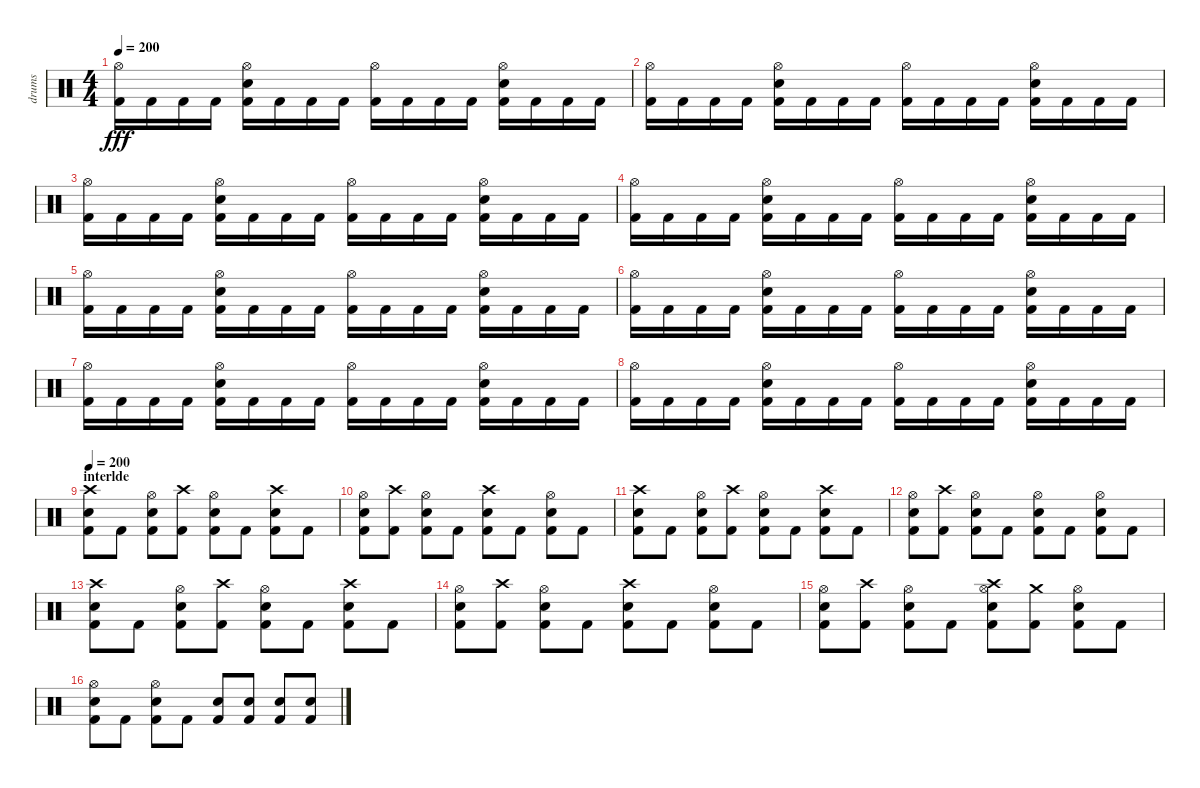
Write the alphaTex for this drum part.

\track ("drums" "drums") {instrument percussion}
\staff {score}
\articulation defaults
\ts (4 4)
\tempo 200
\clef neutral
\ks c
("Hi-Hat (open)" "Kick (hit) 2").16{dy fff} "Kick (hit) 2".16 "Kick (hit) 2".16 "Kick (hit) 2".16 ("Hi-Hat (open)" "Snare (hit) 2" "Kick (hit) 2").16 "Kick (hit) 2".16 "Kick (hit) 2".16 "Kick (hit) 2".16 ("Hi-Hat (open)" "Kick (hit) 2").16 "Kick (hit) 2".16 "Kick (hit) 2".16 "Kick (hit) 2".16 ("Hi-Hat (open)" "Snare (hit) 2" "Kick (hit) 2").16 "Kick (hit) 2".16 "Kick (hit) 2".16 "Kick (hit) 2".16 |
("Hi-Hat (open)" "Kick (hit) 2").16 "Kick (hit) 2".16 "Kick (hit) 2".16 "Kick (hit) 2".16 ("Hi-Hat (open)" "Snare (hit) 2" "Kick (hit) 2").16 "Kick (hit) 2".16 "Kick (hit) 2".16 "Kick (hit) 2".16 ("Hi-Hat (open)" "Kick (hit) 2").16 "Kick (hit) 2".16 "Kick (hit) 2".16 "Kick (hit) 2".16 ("Hi-Hat (open)" "Snare (hit) 2" "Kick (hit) 2").16 "Kick (hit) 2".16 "Kick (hit) 2".16 "Kick (hit) 2".16 |
("Hi-Hat (open)" "Kick (hit) 2").16 "Kick (hit) 2".16 "Kick (hit) 2".16 "Kick (hit) 2".16 ("Hi-Hat (open)" "Snare (hit) 2" "Kick (hit) 2").16 "Kick (hit) 2".16 "Kick (hit) 2".16 "Kick (hit) 2".16 ("Hi-Hat (open)" "Kick (hit) 2").16 "Kick (hit) 2".16 "Kick (hit) 2".16 "Kick (hit) 2".16 ("Hi-Hat (open)" "Snare (hit) 2" "Kick (hit) 2").16 "Kick (hit) 2".16 "Kick (hit) 2".16 "Kick (hit) 2".16 |
("Hi-Hat (open)" "Kick (hit) 2").16 "Kick (hit) 2".16 "Kick (hit) 2".16 "Kick (hit) 2".16 ("Hi-Hat (open)" "Snare (hit) 2" "Kick (hit) 2").16 "Kick (hit) 2".16 "Kick (hit) 2".16 "Kick (hit) 2".16 ("Hi-Hat (open)" "Kick (hit) 2").16 "Kick (hit) 2".16 "Kick (hit) 2".16 "Kick (hit) 2".16 ("Hi-Hat (open)" "Snare (hit) 2" "Kick (hit) 2").16 "Kick (hit) 2".16 "Kick (hit) 2".16 "Kick (hit) 2".16 |
("Hi-Hat (open)" "Kick (hit) 2").16 "Kick (hit) 2".16 "Kick (hit) 2".16 "Kick (hit) 2".16 ("Hi-Hat (open)" "Snare (hit) 2" "Kick (hit) 2").16 "Kick (hit) 2".16 "Kick (hit) 2".16 "Kick (hit) 2".16 ("Hi-Hat (open)" "Kick (hit) 2").16 "Kick (hit) 2".16 "Kick (hit) 2".16 "Kick (hit) 2".16 ("Hi-Hat (open)" "Snare (hit) 2" "Kick (hit) 2").16 "Kick (hit) 2".16 "Kick (hit) 2".16 "Kick (hit) 2".16 |
("Hi-Hat (open)" "Kick (hit) 2").16 "Kick (hit) 2".16 "Kick (hit) 2".16 "Kick (hit) 2".16 ("Hi-Hat (open)" "Snare (hit) 2" "Kick (hit) 2").16 "Kick (hit) 2".16 "Kick (hit) 2".16 "Kick (hit) 2".16 ("Hi-Hat (open)" "Kick (hit) 2").16 "Kick (hit) 2".16 "Kick (hit) 2".16 "Kick (hit) 2".16 ("Hi-Hat (open)" "Snare (hit) 2" "Kick (hit) 2").16 "Kick (hit) 2".16 "Kick (hit) 2".16 "Kick (hit) 2".16 |
("Hi-Hat (open)" "Kick (hit) 2").16 "Kick (hit) 2".16 "Kick (hit) 2".16 "Kick (hit) 2".16 ("Hi-Hat (open)" "Snare (hit) 2" "Kick (hit) 2").16 "Kick (hit) 2".16 "Kick (hit) 2".16 "Kick (hit) 2".16 ("Hi-Hat (open)" "Kick (hit) 2").16 "Kick (hit) 2".16 "Kick (hit) 2".16 "Kick (hit) 2".16 ("Hi-Hat (open)" "Snare (hit) 2" "Kick (hit) 2").16 "Kick (hit) 2".16 "Kick (hit) 2".16 "Kick (hit) 2".16 |
("Hi-Hat (open)" "Kick (hit) 2").16 "Kick (hit) 2".16 "Kick (hit) 2".16 "Kick (hit) 2".16 ("Hi-Hat (open)" "Snare (hit) 2" "Kick (hit) 2").16 "Kick (hit) 2".16 "Kick (hit) 2".16 "Kick (hit) 2".16 ("Hi-Hat (open)" "Kick (hit) 2").16 "Kick (hit) 2".16 "Kick (hit) 2".16 "Kick (hit) 2".16 ("Hi-Hat (open)" "Snare (hit) 2" "Kick (hit) 2").16 "Kick (hit) 2".16 "Kick (hit) 2".16 "Kick (hit) 2".16 |
\section ("" "interlde")
\tempo 200
("Crash high (hit)" "Snare (hit) 2" "Kick (hit) 2").8 "Kick (hit) 2".8 ("Hi-Hat (open)" "Snare (hit) 2" "Kick (hit) 2").8 ("Crash high (hit)" "Kick (hit) 2").8 ("Hi-Hat (open)" "Snare (hit) 2" "Kick (hit) 2").8 "Kick (hit) 2".8 ("Crash high (hit)" "Snare (hit) 2" "Kick (hit) 2").8 "Kick (hit) 2".8 |
("Hi-Hat (open)" "Snare (hit) 2" "Kick (hit) 2").8 ("Crash high (hit)" "Kick (hit) 2").8 ("Hi-Hat (open)" "Snare (hit) 2" "Kick (hit) 2").8 "Kick (hit) 2".8 ("Crash high (hit)" "Snare (hit) 2" "Kick (hit) 2").8 "Kick (hit) 2".8 ("Hi-Hat (open)" "Snare (hit) 2" "Kick (hit) 2").8 "Kick (hit) 2".8 |
("Crash high (hit)" "Snare (hit) 2" "Kick (hit) 2").8 "Kick (hit) 2".8 ("Hi-Hat (open)" "Snare (hit) 2" "Kick (hit) 2").8 ("Crash high (hit)" "Kick (hit) 2").8 ("Hi-Hat (open)" "Snare (hit) 2" "Kick (hit) 2").8 "Kick (hit) 2".8 ("Crash high (hit)" "Snare (hit) 2" "Kick (hit) 2").8 "Kick (hit) 2".8 |
("Hi-Hat (open)" "Snare (hit) 2" "Kick (hit) 2").8 ("Crash high (hit)" "Kick (hit) 2").8 ("Hi-Hat (open)" "Snare (hit) 2" "Kick (hit) 2").8 "Kick (hit) 2".8 ("Hi-Hat (open)" "Snare (hit) 2" "Kick (hit) 2").8 "Kick (hit) 2".8 ("Hi-Hat (open)" "Snare (hit) 2" "Kick (hit) 2").8 "Kick (hit) 2".8 |
("Crash high (hit)" "Snare (hit) 2" "Kick (hit) 2").8 "Kick (hit) 2".8 ("Hi-Hat (open)" "Snare (hit) 2" "Kick (hit) 2").8 ("Crash high (hit)" "Kick (hit) 2").8 ("Hi-Hat (open)" "Snare (hit) 2" "Kick (hit) 2").8 "Kick (hit) 2".8 ("Crash high (hit)" "Snare (hit) 2" "Kick (hit) 2").8 "Kick (hit) 2".8 |
("Hi-Hat (open)" "Snare (hit) 2" "Kick (hit) 2").8 ("Crash high (hit)" "Kick (hit) 2").8 ("Hi-Hat (open)" "Snare (hit) 2" "Kick (hit) 2").8 "Kick (hit) 2".8 ("Crash high (hit)" "Snare (hit) 2" "Kick (hit) 2").8 "Kick (hit) 2".8 ("Hi-Hat (open)" "Snare (hit) 2" "Kick (hit) 2").8 "Kick (hit) 2".8 |
("Hi-Hat (open)" "Snare (hit) 2" "Kick (hit) 2").8 ("Crash high (hit)" "Kick (hit) 2").8 ("Hi-Hat (open)" "Snare (hit) 2" "Kick (hit) 2").8 "Kick (hit) 2".8 ("Crash high (hit)" "Hi-Hat (open)" "Snare (hit) 2" "Kick (hit) 2").8 ("Crash medium (hit)" "Kick (hit) 2").8 ("Hi-Hat (open)" "Snare (hit) 2" "Kick (hit) 2").8 "Kick (hit) 2".8 |
("Hi-Hat (open)" "Snare (hit) 2" "Kick (hit) 2").8 "Kick (hit) 2".8 ("Hi-Hat (open)" "Snare (hit) 2" "Kick (hit) 2").8 "Kick (hit) 2".8 ("Snare (hit) 2" "Kick (hit) 2").8 ("Snare (hit) 2" "Kick (hit) 2").8 ("Snare (hit) 2" "Kick (hit) 2").8 ("Snare (hit) 2" "Kick (hit) 2").8
